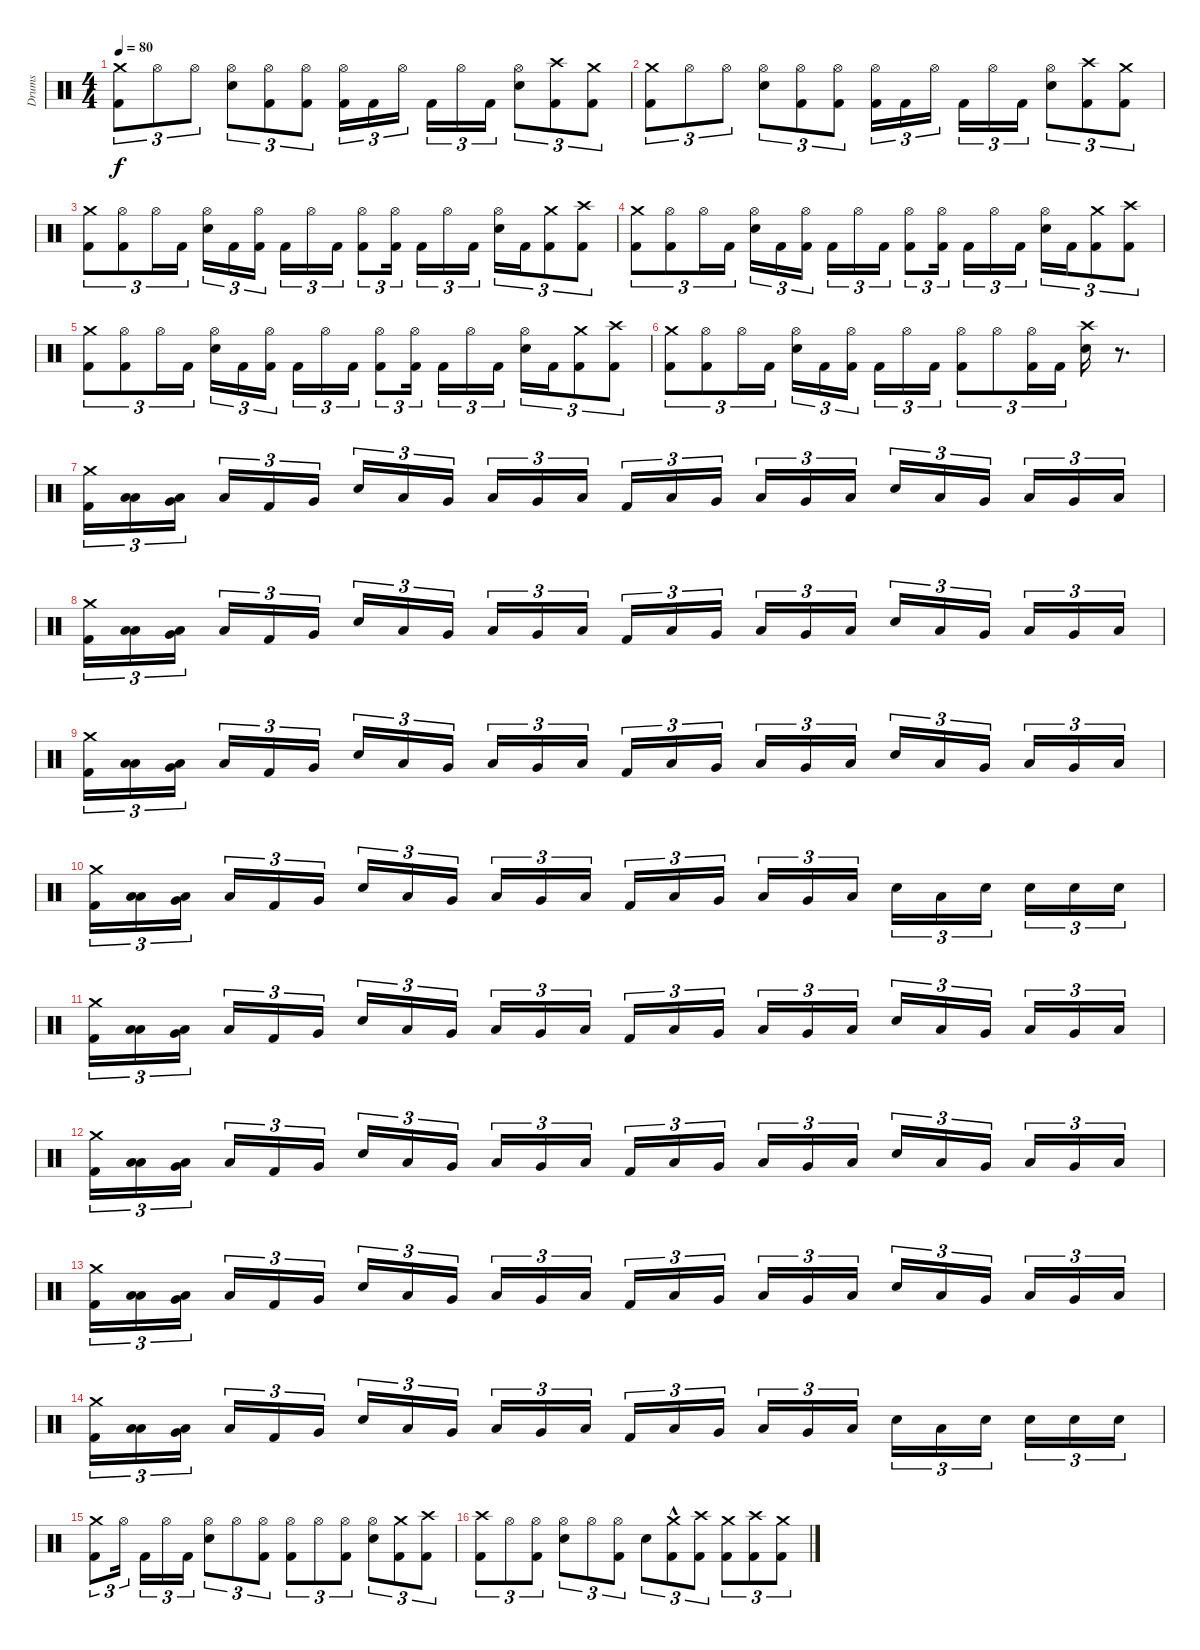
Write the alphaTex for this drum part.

\track ("Drums" "Drums") {instrument percussion}
\staff {score}
\articulation defaults
\ts (4 4)
\tempo 80
\clef neutral
\ks c
("Kick (hit) 2" "Crash medium (hit)").8{tu (3 2) dy f} "Hi-Hat (open)".8{tu (3 2)} "Hi-Hat (open)".8{tu (3 2)} ("Electric Snare (hit)" "Hi-Hat (open)").8{tu (3 2)} ("Kick (hit) 2" "Hi-Hat (open)").8{tu (3 2)} ("Kick (hit) 2" "Hi-Hat (open)").8{tu (3 2)} ("Kick (hit) 2" "Hi-Hat (open)").16{tu (3 2)} "Kick (hit) 2".16{tu (3 2)} "Hi-Hat (open)".16{tu (3 2)} "Kick (hit) 2".16{tu (3 2)} "Hi-Hat (open)".16{tu (3 2)} "Kick (hit) 2".16{tu (3 2)} ("Electric Snare (hit)" "Hi-Hat (open)").8{tu (3 2)} ("Kick (hit) 2" "Crash high (hit)").8{tu (3 2)} ("Kick (hit) 2" "Crash medium (hit)").8{tu (3 2)} |
("Kick (hit) 2" "Crash medium (hit)").8{tu (3 2)} "Hi-Hat (open)".8{tu (3 2)} "Hi-Hat (open)".8{tu (3 2)} ("Electric Snare (hit)" "Hi-Hat (open)").8{tu (3 2)} ("Kick (hit) 2" "Hi-Hat (open)").8{tu (3 2)} ("Kick (hit) 2" "Hi-Hat (open)").8{tu (3 2)} ("Kick (hit) 2" "Hi-Hat (open)").16{tu (3 2)} "Kick (hit) 2".16{tu (3 2)} "Hi-Hat (open)".16{tu (3 2)} "Kick (hit) 2".16{tu (3 2)} "Hi-Hat (open)".16{tu (3 2)} "Kick (hit) 2".16{tu (3 2)} ("Electric Snare (hit)" "Hi-Hat (open)").8{tu (3 2)} ("Kick (hit) 2" "Crash high (hit)").8{tu (3 2)} ("Kick (hit) 2" "Crash medium (hit)").8{tu (3 2)} |
("Crash medium (hit)" "Kick (hit) 2").8{tu (3 2)} ("Hi-Hat (open)" "Kick (hit) 2").8{tu (3 2)} "Hi-Hat (open)".16{tu (3 2)} "Kick (hit) 2".16{tu (3 2)} ("Electric Snare (hit)" "Hi-Hat (open)").16{tu (3 2)} "Kick (hit) 2".16{tu (3 2)} ("Hi-Hat (open)" "Kick (hit) 2").16{tu (3 2)} "Kick (hit) 2".16{tu (3 2)} "Hi-Hat (open)".16{tu (3 2)} "Kick (hit) 2".16{tu (3 2)} ("Hi-Hat (open)" "Kick (hit) 2").8{tu (3 2)} ("Hi-Hat (open)" "Kick (hit) 2").16{tu (3 2)} "Kick (hit) 2".16{tu (3 2)} "Hi-Hat (open)".16{tu (3 2)} "Kick (hit) 2".16{tu (3 2)} ("Electric Snare (hit)" "Hi-Hat (open)").16{tu (3 2)} "Kick (hit) 2".16{tu (3 2)} ("Crash medium (hit)" "Kick (hit) 2").8{tu (3 2)} ("Crash high (hit)" "Kick (hit) 2").8{tu (3 2)} |
("Crash medium (hit)" "Kick (hit) 2").8{tu (3 2)} ("Hi-Hat (open)" "Kick (hit) 2").8{tu (3 2)} "Hi-Hat (open)".16{tu (3 2)} "Kick (hit) 2".16{tu (3 2)} ("Electric Snare (hit)" "Hi-Hat (open)").16{tu (3 2)} "Kick (hit) 2".16{tu (3 2)} ("Hi-Hat (open)" "Kick (hit) 2").16{tu (3 2)} "Kick (hit) 2".16{tu (3 2)} "Hi-Hat (open)".16{tu (3 2)} "Kick (hit) 2".16{tu (3 2)} ("Hi-Hat (open)" "Kick (hit) 2").8{tu (3 2)} ("Hi-Hat (open)" "Kick (hit) 2").16{tu (3 2)} "Kick (hit) 2".16{tu (3 2)} "Hi-Hat (open)".16{tu (3 2)} "Kick (hit) 2".16{tu (3 2)} ("Electric Snare (hit)" "Hi-Hat (open)").16{tu (3 2)} "Kick (hit) 2".16{tu (3 2)} ("Crash medium (hit)" "Kick (hit) 2").8{tu (3 2)} ("Crash high (hit)" "Kick (hit) 2").8{tu (3 2)} |
("Crash medium (hit)" "Kick (hit) 2").8{tu (3 2)} ("Hi-Hat (open)" "Kick (hit) 2").8{tu (3 2)} "Hi-Hat (open)".16{tu (3 2)} "Kick (hit) 2".16{tu (3 2)} ("Electric Snare (hit)" "Hi-Hat (open)").16{tu (3 2)} "Kick (hit) 2".16{tu (3 2)} ("Hi-Hat (open)" "Kick (hit) 2").16{tu (3 2)} "Kick (hit) 2".16{tu (3 2)} "Hi-Hat (open)".16{tu (3 2)} "Kick (hit) 2".16{tu (3 2)} ("Hi-Hat (open)" "Kick (hit) 2").8{tu (3 2)} ("Hi-Hat (open)" "Kick (hit) 2").16{tu (3 2)} "Kick (hit) 2".16{tu (3 2)} "Hi-Hat (open)".16{tu (3 2)} "Kick (hit) 2".16{tu (3 2)} ("Electric Snare (hit)" "Hi-Hat (open)").16{tu (3 2)} "Kick (hit) 2".16{tu (3 2)} ("Crash medium (hit)" "Kick (hit) 2").8{tu (3 2)} ("Crash high (hit)" "Kick (hit) 2").8{tu (3 2)} |
("Crash medium (hit)" "Kick (hit) 2").8{tu (3 2)} ("Hi-Hat (open)" "Kick (hit) 2").8{tu (3 2)} "Hi-Hat (open)".16{tu (3 2)} "Kick (hit) 2".16{tu (3 2)} ("Electric Snare (hit)" "Hi-Hat (open)").16{tu (3 2)} "Kick (hit) 2".16{tu (3 2)} ("Hi-Hat (open)" "Kick (hit) 2").16{tu (3 2)} "Kick (hit) 2".16{tu (3 2)} "Hi-Hat (open)".16{tu (3 2)} "Kick (hit) 2".16{tu (3 2)} ("Hi-Hat (open)" "Kick (hit) 2").8{tu (3 2)} "Hi-Hat (open)".8{tu (3 2)} ("Kick (hit) 2" "Hi-Hat (open)").16{tu (3 2)} "Kick (hit) 2".16{tu (3 2)} ("Crash high (hit)" "Electric Snare (hit)").16 r.8{d} |
("Kick (hit) 2" "Crash medium (hit)").16{tu (3 2)} ("Low Floor Tom (hit)" "Low Tom (hit)").16{tu (3 2)} ("Low Floor Tom (hit)" "Very Low Tom (hit)").16{tu (3 2)} "Low Floor Tom (hit)".16{tu (3 2)} "Kick (hit) 2".16{tu (3 2)} "Very Low Tom (hit)".16{tu (3 2)} "Electric Snare (hit)".16{tu (3 2)} "Low Tom (hit)".16{tu (3 2)} "Very Low Tom (hit)".16{tu (3 2)} "Low Tom (hit)".16{tu (3 2)} "Very Low Tom (hit)".16{tu (3 2)} "Low Floor Tom (hit)".16{tu (3 2)} "Kick (hit) 2".16{tu (3 2)} "Low Floor Tom (hit)".16{tu (3 2)} "Very Low Tom (hit)".16{tu (3 2)} "Low Tom (hit)".16{tu (3 2)} "Very Low Tom (hit)".16{tu (3 2)} "Low Tom (hit)".16{tu (3 2)} "Electric Snare (hit)".16{tu (3 2)} "Low Tom (hit)".16{tu (3 2)} "Very Low Tom (hit)".16{tu (3 2)} "Low Tom (hit)".16{tu (3 2)} "Very Low Tom (hit)".16{tu (3 2)} "Low Floor Tom (hit)".16{tu (3 2)} |
("Kick (hit) 2" "Crash medium (hit)").16{tu (3 2)} ("Low Floor Tom (hit)" "Low Tom (hit)").16{tu (3 2)} ("Low Floor Tom (hit)" "Very Low Tom (hit)").16{tu (3 2)} "Low Floor Tom (hit)".16{tu (3 2)} "Kick (hit) 2".16{tu (3 2)} "Very Low Tom (hit)".16{tu (3 2)} "Electric Snare (hit)".16{tu (3 2)} "Low Tom (hit)".16{tu (3 2)} "Very Low Tom (hit)".16{tu (3 2)} "Low Tom (hit)".16{tu (3 2)} "Very Low Tom (hit)".16{tu (3 2)} "Low Floor Tom (hit)".16{tu (3 2)} "Kick (hit) 2".16{tu (3 2)} "Low Floor Tom (hit)".16{tu (3 2)} "Very Low Tom (hit)".16{tu (3 2)} "Low Tom (hit)".16{tu (3 2)} "Very Low Tom (hit)".16{tu (3 2)} "Low Tom (hit)".16{tu (3 2)} "Electric Snare (hit)".16{tu (3 2)} "Low Tom (hit)".16{tu (3 2)} "Very Low Tom (hit)".16{tu (3 2)} "Low Tom (hit)".16{tu (3 2)} "Very Low Tom (hit)".16{tu (3 2)} "Low Floor Tom (hit)".16{tu (3 2)} |
("Kick (hit) 2" "Crash medium (hit)").16{tu (3 2)} ("Low Floor Tom (hit)" "Low Tom (hit)").16{tu (3 2)} ("Low Floor Tom (hit)" "Very Low Tom (hit)").16{tu (3 2)} "Low Floor Tom (hit)".16{tu (3 2)} "Kick (hit) 2".16{tu (3 2)} "Very Low Tom (hit)".16{tu (3 2)} "Electric Snare (hit)".16{tu (3 2)} "Low Tom (hit)".16{tu (3 2)} "Very Low Tom (hit)".16{tu (3 2)} "Low Tom (hit)".16{tu (3 2)} "Very Low Tom (hit)".16{tu (3 2)} "Low Floor Tom (hit)".16{tu (3 2)} "Kick (hit) 2".16{tu (3 2)} "Low Floor Tom (hit)".16{tu (3 2)} "Very Low Tom (hit)".16{tu (3 2)} "Low Tom (hit)".16{tu (3 2)} "Very Low Tom (hit)".16{tu (3 2)} "Low Tom (hit)".16{tu (3 2)} "Electric Snare (hit)".16{tu (3 2)} "Low Tom (hit)".16{tu (3 2)} "Very Low Tom (hit)".16{tu (3 2)} "Low Tom (hit)".16{tu (3 2)} "Very Low Tom (hit)".16{tu (3 2)} "Low Floor Tom (hit)".16{tu (3 2)} |
("Kick (hit) 2" "Crash medium (hit)").16{tu (3 2)} ("Low Floor Tom (hit)" "Low Tom (hit)").16{tu (3 2)} ("Low Floor Tom (hit)" "Very Low Tom (hit)").16{tu (3 2)} "Low Floor Tom (hit)".16{tu (3 2)} "Kick (hit) 2".16{tu (3 2)} "Very Low Tom (hit)".16{tu (3 2)} "Electric Snare (hit)".16{tu (3 2)} "Low Tom (hit)".16{tu (3 2)} "Very Low Tom (hit)".16{tu (3 2)} "Low Tom (hit)".16{tu (3 2)} "Very Low Tom (hit)".16{tu (3 2)} "Low Floor Tom (hit)".16{tu (3 2)} "Kick (hit) 2".16{tu (3 2)} "Low Floor Tom (hit)".16{tu (3 2)} "Very Low Tom (hit)".16{tu (3 2)} "Low Tom (hit)".16{tu (3 2)} "Very Low Tom (hit)".16{tu (3 2)} "Low Tom (hit)".16{tu (3 2)} "Electric Snare (hit)".16{tu (3 2)} "Low Tom (hit)".16{tu (3 2)} "Electric Snare (hit)".16{tu (3 2)} "Electric Snare (hit)".16{tu (3 2)} "Electric Snare (hit)".16{tu (3 2)} "Electric Snare (hit)".16{tu (3 2)} |
("Kick (hit) 2" "Crash medium (hit)").16{tu (3 2)} ("Low Floor Tom (hit)" "Low Tom (hit)").16{tu (3 2)} ("Low Floor Tom (hit)" "Very Low Tom (hit)").16{tu (3 2)} "Low Floor Tom (hit)".16{tu (3 2)} "Kick (hit) 2".16{tu (3 2)} "Very Low Tom (hit)".16{tu (3 2)} "Electric Snare (hit)".16{tu (3 2)} "Low Tom (hit)".16{tu (3 2)} "Very Low Tom (hit)".16{tu (3 2)} "Low Tom (hit)".16{tu (3 2)} "Very Low Tom (hit)".16{tu (3 2)} "Low Floor Tom (hit)".16{tu (3 2)} "Kick (hit) 2".16{tu (3 2)} "Low Floor Tom (hit)".16{tu (3 2)} "Very Low Tom (hit)".16{tu (3 2)} "Low Tom (hit)".16{tu (3 2)} "Very Low Tom (hit)".16{tu (3 2)} "Low Tom (hit)".16{tu (3 2)} "Electric Snare (hit)".16{tu (3 2)} "Low Tom (hit)".16{tu (3 2)} "Very Low Tom (hit)".16{tu (3 2)} "Low Tom (hit)".16{tu (3 2)} "Very Low Tom (hit)".16{tu (3 2)} "Low Floor Tom (hit)".16{tu (3 2)} |
("Kick (hit) 2" "Crash medium (hit)").16{tu (3 2)} ("Low Floor Tom (hit)" "Low Tom (hit)").16{tu (3 2)} ("Low Floor Tom (hit)" "Very Low Tom (hit)").16{tu (3 2)} "Low Floor Tom (hit)".16{tu (3 2)} "Kick (hit) 2".16{tu (3 2)} "Very Low Tom (hit)".16{tu (3 2)} "Electric Snare (hit)".16{tu (3 2)} "Low Tom (hit)".16{tu (3 2)} "Very Low Tom (hit)".16{tu (3 2)} "Low Tom (hit)".16{tu (3 2)} "Very Low Tom (hit)".16{tu (3 2)} "Low Floor Tom (hit)".16{tu (3 2)} "Kick (hit) 2".16{tu (3 2)} "Low Floor Tom (hit)".16{tu (3 2)} "Very Low Tom (hit)".16{tu (3 2)} "Low Tom (hit)".16{tu (3 2)} "Very Low Tom (hit)".16{tu (3 2)} "Low Tom (hit)".16{tu (3 2)} "Electric Snare (hit)".16{tu (3 2)} "Low Tom (hit)".16{tu (3 2)} "Very Low Tom (hit)".16{tu (3 2)} "Low Tom (hit)".16{tu (3 2)} "Very Low Tom (hit)".16{tu (3 2)} "Low Floor Tom (hit)".16{tu (3 2)} |
("Kick (hit) 2" "Crash medium (hit)").16{tu (3 2)} ("Low Floor Tom (hit)" "Low Tom (hit)").16{tu (3 2)} ("Low Floor Tom (hit)" "Very Low Tom (hit)").16{tu (3 2)} "Low Floor Tom (hit)".16{tu (3 2)} "Kick (hit) 2".16{tu (3 2)} "Very Low Tom (hit)".16{tu (3 2)} "Electric Snare (hit)".16{tu (3 2)} "Low Tom (hit)".16{tu (3 2)} "Very Low Tom (hit)".16{tu (3 2)} "Low Tom (hit)".16{tu (3 2)} "Very Low Tom (hit)".16{tu (3 2)} "Low Floor Tom (hit)".16{tu (3 2)} "Kick (hit) 2".16{tu (3 2)} "Low Floor Tom (hit)".16{tu (3 2)} "Very Low Tom (hit)".16{tu (3 2)} "Low Tom (hit)".16{tu (3 2)} "Very Low Tom (hit)".16{tu (3 2)} "Low Tom (hit)".16{tu (3 2)} "Electric Snare (hit)".16{tu (3 2)} "Low Tom (hit)".16{tu (3 2)} "Very Low Tom (hit)".16{tu (3 2)} "Low Tom (hit)".16{tu (3 2)} "Very Low Tom (hit)".16{tu (3 2)} "Low Floor Tom (hit)".16{tu (3 2)} |
("Kick (hit) 2" "Crash medium (hit)").16{tu (3 2)} ("Low Floor Tom (hit)" "Low Tom (hit)").16{tu (3 2)} ("Low Floor Tom (hit)" "Very Low Tom (hit)").16{tu (3 2)} "Low Floor Tom (hit)".16{tu (3 2)} "Kick (hit) 2".16{tu (3 2)} "Very Low Tom (hit)".16{tu (3 2)} "Electric Snare (hit)".16{tu (3 2)} "Low Tom (hit)".16{tu (3 2)} "Very Low Tom (hit)".16{tu (3 2)} "Low Tom (hit)".16{tu (3 2)} "Very Low Tom (hit)".16{tu (3 2)} "Low Floor Tom (hit)".16{tu (3 2)} "Kick (hit) 2".16{tu (3 2)} "Low Floor Tom (hit)".16{tu (3 2)} "Very Low Tom (hit)".16{tu (3 2)} "Low Tom (hit)".16{tu (3 2)} "Very Low Tom (hit)".16{tu (3 2)} "Low Tom (hit)".16{tu (3 2)} "Electric Snare (hit)".16{tu (3 2)} "Low Tom (hit)".16{tu (3 2)} "Electric Snare (hit)".16{tu (3 2)} "Electric Snare (hit)".16{tu (3 2)} "Electric Snare (hit)".16{tu (3 2)} "Electric Snare (hit)".16{tu (3 2)} |
("Kick (hit) 2" "Crash medium (hit)").8{tu (3 2)} "Hi-Hat (open)".16{tu (3 2)} "Kick (hit) 2".16{tu (3 2)} "Hi-Hat (open)".16{tu (3 2)} "Kick (hit) 2".16{tu (3 2)} ("Electric Snare (hit)" "Hi-Hat (open)").8{tu (3 2)} "Hi-Hat (open)".8{tu (3 2)} ("Kick (hit) 2" "Hi-Hat (open)").8{tu (3 2)} ("Kick (hit) 2" "Hi-Hat (open)").8{tu (3 2)} "Hi-Hat (open)".8{tu (3 2)} ("Kick (hit) 2" "Hi-Hat (open)").8{tu (3 2)} ("Electric Snare (hit)" "Hi-Hat (open)").8{tu (3 2)} ("Kick (hit) 2" "Crash medium (hit)").8{tu (3 2)} ("Kick (hit) 2" "Crash high (hit)").8{tu (3 2)} |
("Kick (hit) 2" "Crash high (hit)").8{tu (3 2)} "Hi-Hat (open)".8{tu (3 2)} ("Kick (hit) 2" "Hi-Hat (open)").8{tu (3 2)} ("Electric Snare (hit)" "Hi-Hat (open)").8{tu (3 2)} "Hi-Hat (open)".8{tu (3 2)} ("Kick (hit) 2" "Hi-Hat (open)").8{tu (3 2)} "Electric Snare (hit)".8{tu (3 2)} ("Kick (hit) 2" "Crash medium (hit)"{hac}).8{tu (3 2)} ("Kick (hit) 2" "Crash high (hit)").8{tu (3 2)} ("Kick (hit) 2" "Crash medium (hit)").8{tu (3 2)} ("Kick (hit) 2" "Crash high (hit)").8{tu (3 2)} ("Kick (hit) 2" "Crash medium (hit)").8{tu (3 2)}
